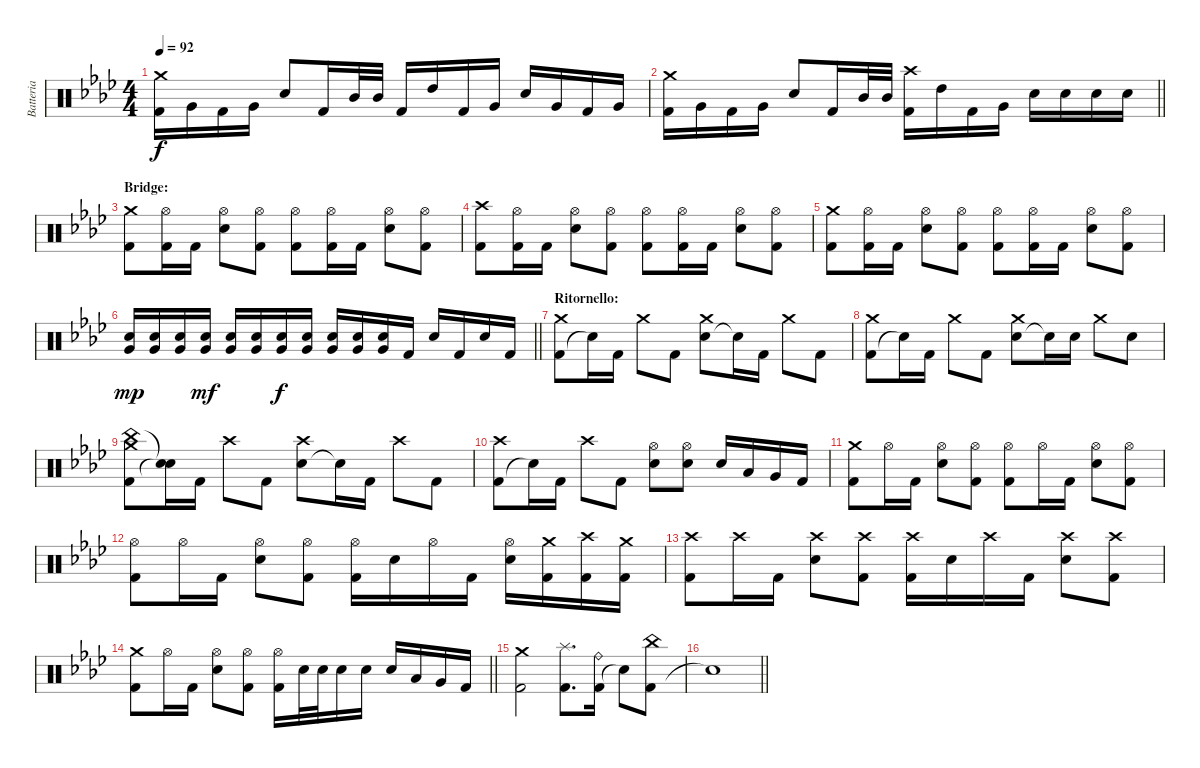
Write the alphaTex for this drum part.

\track ("Batteria" "Batteria") {instrument percussion}
\staff {score}
\articulation defaults
\ts (4 4)
\tempo 92
\clef neutral
\ks fminor
("Kick (hit) 2" "Crash medium (hit)").16{dy f} "Very Low Tom (hit)".16 "Kick (hit) 2".16 "Very Low Tom (hit)".16 "Snare (hit) 2".8 "Kick (hit) 2".16 "Mid Tom (hit)".32 "Mid Tom (hit)".32 "Kick (hit) 2".16 "High Tom (hit)".16 "Kick (hit) 2".16 "Very Low Tom (hit)".16 "Snare (hit) 2".16 "Very Low Tom (hit)".16 "Kick (hit) 2".16 "Very Low Tom (hit)".16 |
\barLineRight lightlight
("Kick (hit) 2" "Crash medium (hit)").16 "Very Low Tom (hit)".16 "Kick (hit) 2".16 "Very Low Tom (hit)".16 "Snare (hit) 2".8 "Kick (hit) 2".16 "Mid Tom (hit)".32 "Mid Tom (hit)".32 ("Kick (hit) 2" "Crash high (hit)").16 "High Tom (hit)".16 "Kick (hit) 2".16 "Very Low Tom (hit)".16 "Snare (hit) 2".16 "Snare (hit) 2".16 "Snare (hit) 2".16 "Snare (hit) 2".16 |
\section ("" "Bridge:")
("Kick (hit) 2" "Crash medium (hit)").8 ("Kick (hit) 2" "Hi-Hat (open)").16 "Kick (hit) 2".16 ("Snare (hit) 2" "Hi-Hat (open)").8 ("Kick (hit) 2" "Hi-Hat (open)").8 ("Kick (hit) 2" "Hi-Hat (open)").8 ("Kick (hit) 2" "Hi-Hat (open)").16 "Kick (hit) 2".16 ("Snare (hit) 2" "Hi-Hat (open)").8 ("Kick (hit) 2" "Hi-Hat (open)").8 |
("Kick (hit) 2" "Crash high (hit)").8 ("Kick (hit) 2" "Hi-Hat (open)").16 "Kick (hit) 2".16 ("Snare (hit) 2" "Hi-Hat (open)").8 ("Kick (hit) 2" "Hi-Hat (open)").8 ("Kick (hit) 2" "Hi-Hat (open)").8 ("Kick (hit) 2" "Hi-Hat (open)").16 "Kick (hit) 2".16 ("Snare (hit) 2" "Hi-Hat (open)").8 ("Kick (hit) 2" "Hi-Hat (open)").8 |
("Kick (hit) 2" "Crash medium (hit)").8 ("Kick (hit) 2" "Hi-Hat (open)").16 "Kick (hit) 2".16 ("Snare (hit) 2" "Hi-Hat (open)").8 ("Kick (hit) 2" "Hi-Hat (open)").8 ("Kick (hit) 2" "Hi-Hat (open)").8 ("Kick (hit) 2" "Hi-Hat (open)").16 "Kick (hit) 2".16 ("Snare (hit) 2" "Hi-Hat (open)").8 ("Kick (hit) 2" "Hi-Hat (open)").8 |
\barLineRight lightlight
("Snare (hit) 2" "Very Low Tom (hit)").16{dy mp} ("Snare (hit) 2" "Very Low Tom (hit)").16 ("Snare (hit) 2" "Very Low Tom (hit)").16 ("Snare (hit) 2" "Very Low Tom (hit)").16{dy mf} ("Snare (hit) 2" "Very Low Tom (hit)").16 ("Snare (hit) 2" "Very Low Tom (hit)").16 ("Snare (hit) 2" "Very Low Tom (hit)").16{dy f} ("Snare (hit) 2" "Very Low Tom (hit)").16 ("Snare (hit) 2" "Very Low Tom (hit)").16 ("Snare (hit) 2" "Very Low Tom (hit)").16 ("Snare (hit) 2" "Very Low Tom (hit)").16 "Kick (hit) 2".16 "Snare (hit) 2".16 "Kick (hit) 2".16 "Snare (hit) 2".16 "Kick (hit) 2".16 |
\section ("" "Ritornello:")
("Kick (hit) 2" "Crash medium (hit)").8 "Snare (hit)"{t}.16 "Kick (hit) 2".16 "Crash medium (hit)".8 "Kick (hit) 2".8 ("Snare (hit) 2" "Crash medium (hit)").8 "Snare (hit)"{t}.16 "Kick (hit) 2".16 "Crash medium (hit)".8 "Kick (hit) 2".8 |
("Kick (hit) 2" "Crash medium (hit)").8 "Snare (hit)"{t}.16 "Kick (hit) 2".16 "Crash medium (hit)".8 "Kick (hit) 2".8 ("Snare (hit) 2" "Crash medium (hit)").8 "Snare (hit)"{t}.16 "Snare (hit) 2".16 "Crash medium (hit)".8 "Snare (hit) 2".8 |
("Kick (hit) 2" "China (hit)" "Crash medium (hit)").8 ("Snare (hit)"{t} "Snare (hit)"{t}).16 "Kick (hit) 2".16 "Crash high (hit)".8 "Kick (hit) 2".8 ("Snare (hit) 2" "Crash high (hit)").8 "Snare (hit)"{t}.16 "Kick (hit) 2".16 "Crash high (hit)".8 "Kick (hit) 2".8 |
("Kick (hit) 2" "Crash high (hit)").8 "Snare (hit)"{t}.16 "Kick (hit) 2".16 "Crash high (hit)".8 "Kick (hit) 2".8 ("Snare (hit) 2" "Hi-Hat (open)").8 ("Snare (hit) 2" "Hi-Hat (open)").8 "Snare (hit) 2".16 "Low Tom (hit)".16 "Very Low Tom (hit)".16 "Kick (hit) 2".16 |
("Kick (hit) 2" "Crash medium (hit)").8 "Hi-Hat (open)".16 "Kick (hit) 2".16 ("Snare (hit) 2" "Hi-Hat (open)").8 ("Kick (hit) 2" "Hi-Hat (open)").8 ("Kick (hit) 2" "Hi-Hat (open)").8 "Hi-Hat (open)".16 "Kick (hit) 2".16 ("Snare (hit) 2" "Hi-Hat (open)").8 ("Kick (hit) 2" "Hi-Hat (open)").8 |
("Kick (hit) 2" "Hi-Hat (open)").8 "Hi-Hat (open)".16 "Kick (hit) 2".16 ("Snare (hit) 2" "Hi-Hat (open)").8 ("Kick (hit) 2" "Hi-Hat (open)").8 ("Kick (hit) 2" "Hi-Hat (open)").16 "Snare (hit) 2".16 "Hi-Hat (open)".16 "Kick (hit) 2".16 ("Snare (hit) 2" "Hi-Hat (open)").16 ("Kick (hit) 2" "Crash medium (hit)").16 ("Kick (hit) 2" "Crash high (hit)").16 ("Kick (hit) 2" "Crash medium (hit)").16 |
("Kick (hit) 2" "Crash high (hit)").8 "Crash high (hit)".16 "Kick (hit) 2".16 ("Snare (hit) 2" "Crash high (hit)").8 ("Kick (hit) 2" "Crash high (hit)").8 ("Kick (hit) 2" "Crash high (hit)").16 "Snare (hit) 2".16 "Crash high (hit)".16 "Kick (hit) 2".16 ("Snare (hit) 2" "Crash high (hit)").8 ("Kick (hit) 2" "Crash high (hit)").8 |
\barLineRight lightlight
("Kick (hit) 2" "Crash medium (hit)").8 "Hi-Hat (open)".16 "Kick (hit) 2".16 ("Snare (hit) 2" "Hi-Hat (open)").8 ("Kick (hit) 2" "Hi-Hat (open)").8 ("Kick (hit) 2" "Hi-Hat (open)").16 "Snare (hit) 2".32 "Snare (hit) 2".32 "Snare (hit) 2".16 "Snare (hit) 2".16 "Snare (hit) 2".16 "Low Tom (hit)".16 "Very Low Tom (hit)".16 "Kick (hit) 2".16 |
("Kick (hit) 2" "Crash medium (hit)").2 ("Kick (hit) 2" "Splash (hit)").8{d} ("Kick (hit) 2" "Ride (bell)").16 "Snare (hit)"{t}.8 ("Kick (hit) 2" "China (hit)").8 |
\barLineRight lightlight "Snare (hit)"{t}.1
